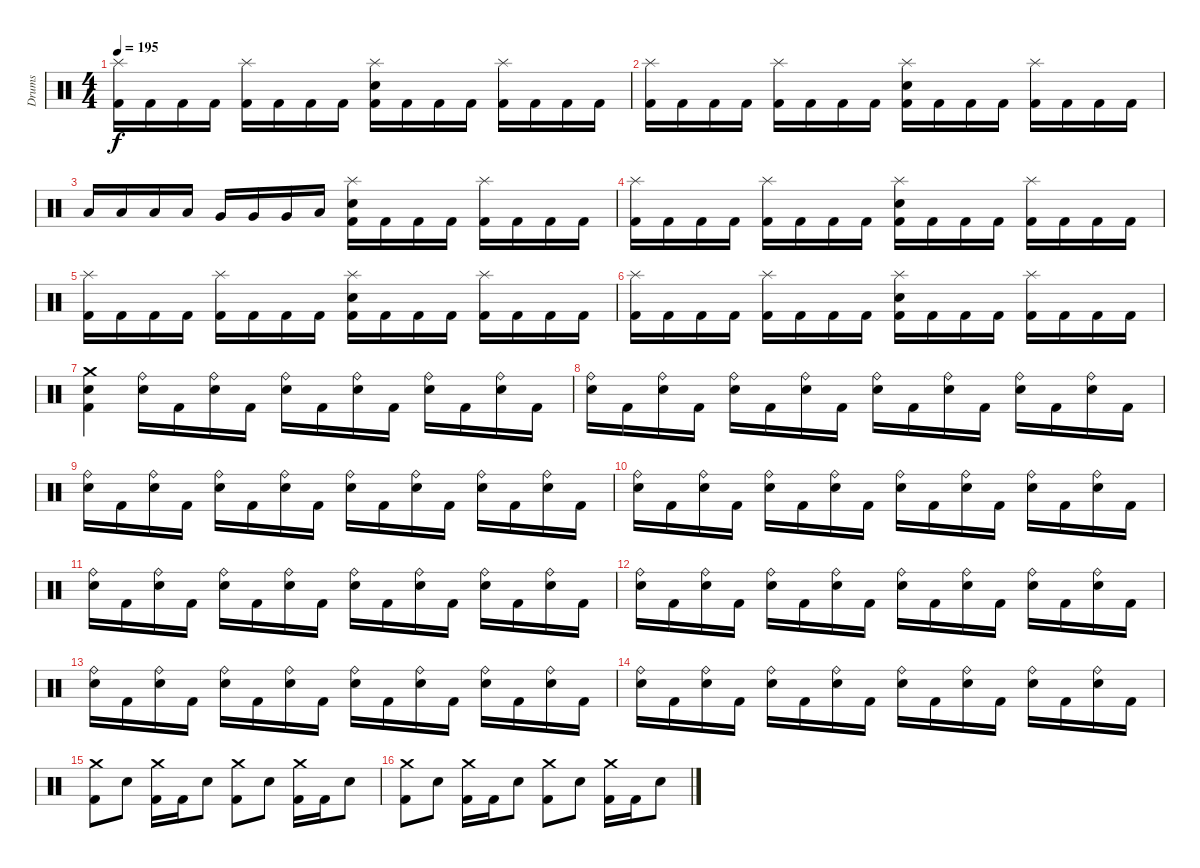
\track ("Drums" "Drums") {instrument percussion}
\staff {score}
\articulation defaults
\ts (4 4)
\tempo 195
\clef neutral
\ks c
("Splash (hit)" "Kick (hit) 2").16{dy f} "Kick (hit) 2".16 "Kick (hit) 2".16 "Kick (hit) 2".16 ("Splash (hit)" "Kick (hit) 2").16 "Kick (hit) 2".16 "Kick (hit) 2".16 "Kick (hit) 2".16 ("Splash (hit)" "Electric Snare (hit)" "Kick (hit) 2").16 "Kick (hit) 2".16 "Kick (hit) 2".16 "Kick (hit) 2".16 ("Splash (hit)" "Kick (hit) 2").16 "Kick (hit) 2".16 "Kick (hit) 2".16 "Kick (hit) 2".16 |
("Splash (hit)" "Kick (hit) 2").16 "Kick (hit) 2".16 "Kick (hit) 2".16 "Kick (hit) 2".16 ("Splash (hit)" "Kick (hit) 2").16 "Kick (hit) 2".16 "Kick (hit) 2".16 "Kick (hit) 2".16 ("Splash (hit)" "Electric Snare (hit)" "Kick (hit) 2").16 "Kick (hit) 2".16 "Kick (hit) 2".16 "Kick (hit) 2".16 ("Splash (hit)" "Kick (hit) 2").16 "Kick (hit) 2".16 "Kick (hit) 2".16 "Kick (hit) 2".16 |
"Low Floor Tom (hit)".16 "Low Tom (hit)".16 "Low Tom (hit)".16 "Low Floor Tom (hit)".16 "Very Low Tom (hit)".16 "Very Low Tom (hit)".16 "Very Low Tom (hit)".16 "Low Floor Tom (hit)".16 ("Splash (hit)" "Electric Snare (hit)" "Kick (hit) 2").16 "Kick (hit) 2".16 "Kick (hit) 2".16 "Kick (hit) 2".16 ("Splash (hit)" "Kick (hit) 2").16 "Kick (hit) 2".16 "Kick (hit) 2".16 "Kick (hit) 2".16 |
("Splash (hit)" "Kick (hit) 2").16 "Kick (hit) 2".16 "Kick (hit) 2".16 "Kick (hit) 2".16 ("Splash (hit)" "Kick (hit) 2").16 "Kick (hit) 2".16 "Kick (hit) 2".16 "Kick (hit) 2".16 ("Splash (hit)" "Electric Snare (hit)" "Kick (hit) 2").16 "Kick (hit) 2".16 "Kick (hit) 2".16 "Kick (hit) 2".16 ("Splash (hit)" "Kick (hit) 2").16 "Kick (hit) 2".16 "Kick (hit) 2".16 "Kick (hit) 2".16 |
("Splash (hit)" "Kick (hit) 2").16 "Kick (hit) 2".16 "Kick (hit) 2".16 "Kick (hit) 2".16 ("Splash (hit)" "Kick (hit) 2").16 "Kick (hit) 2".16 "Kick (hit) 2".16 "Kick (hit) 2".16 ("Splash (hit)" "Electric Snare (hit)" "Kick (hit) 2").16 "Kick (hit) 2".16 "Kick (hit) 2".16 "Kick (hit) 2".16 ("Splash (hit)" "Kick (hit) 2").16 "Kick (hit) 2".16 "Kick (hit) 2".16 "Kick (hit) 2".16 |
("Splash (hit)" "Kick (hit) 2").16 "Kick (hit) 2".16 "Kick (hit) 2".16 "Kick (hit) 2".16 ("Splash (hit)" "Kick (hit) 2").16 "Kick (hit) 2".16 "Kick (hit) 2".16 "Kick (hit) 2".16 ("Splash (hit)" "Electric Snare (hit)" "Kick (hit) 2").16 "Kick (hit) 2".16 "Kick (hit) 2".16 "Kick (hit) 2".16 ("Splash (hit)" "Kick (hit) 2").16 "Kick (hit) 2".16 "Kick (hit) 2".16 "Kick (hit) 2".16 |
("Crash medium (hit)" "Electric Snare (hit)" "Kick (hit) 2").4 ("Ride (bell)" "Electric Snare (hit)").16 "Kick (hit) 2".16 ("Ride (bell)" "Electric Snare (hit)").16 "Kick (hit) 2".16 ("Ride (bell)" "Electric Snare (hit)").16 "Kick (hit) 2".16 ("Ride (bell)" "Electric Snare (hit)").16 "Kick (hit) 2".16 ("Ride (bell)" "Electric Snare (hit)").16 "Kick (hit) 2".16 ("Ride (bell)" "Electric Snare (hit)").16 "Kick (hit) 2".16 |
("Ride (bell)" "Electric Snare (hit)").16 "Kick (hit) 2".16 ("Ride (bell)" "Electric Snare (hit)").16 "Kick (hit) 2".16 ("Ride (bell)" "Electric Snare (hit)").16 "Kick (hit) 2".16 ("Ride (bell)" "Electric Snare (hit)").16 "Kick (hit) 2".16 ("Ride (bell)" "Electric Snare (hit)").16 "Kick (hit) 2".16 ("Ride (bell)" "Electric Snare (hit)").16 "Kick (hit) 2".16 ("Ride (bell)" "Electric Snare (hit)").16 "Kick (hit) 2".16 ("Ride (bell)" "Electric Snare (hit)").16 "Kick (hit) 2".16 |
("Ride (bell)" "Electric Snare (hit)").16 "Kick (hit) 2".16 ("Ride (bell)" "Electric Snare (hit)").16 "Kick (hit) 2".16 ("Ride (bell)" "Electric Snare (hit)").16 "Kick (hit) 2".16 ("Ride (bell)" "Electric Snare (hit)").16 "Kick (hit) 2".16 ("Ride (bell)" "Electric Snare (hit)").16 "Kick (hit) 2".16 ("Ride (bell)" "Electric Snare (hit)").16 "Kick (hit) 2".16 ("Ride (bell)" "Electric Snare (hit)").16 "Kick (hit) 2".16 ("Ride (bell)" "Electric Snare (hit)").16 "Kick (hit) 2".16 |
("Ride (bell)" "Electric Snare (hit)").16 "Kick (hit) 2".16 ("Ride (bell)" "Electric Snare (hit)").16 "Kick (hit) 2".16 ("Ride (bell)" "Electric Snare (hit)").16 "Kick (hit) 2".16 ("Ride (bell)" "Electric Snare (hit)").16 "Kick (hit) 2".16 ("Ride (bell)" "Electric Snare (hit)").16 "Kick (hit) 2".16 ("Ride (bell)" "Electric Snare (hit)").16 "Kick (hit) 2".16 ("Ride (bell)" "Electric Snare (hit)").16 "Kick (hit) 2".16 ("Ride (bell)" "Electric Snare (hit)").16 "Kick (hit) 2".16 |
("Ride (bell)" "Electric Snare (hit)").16 "Kick (hit) 2".16 ("Ride (bell)" "Electric Snare (hit)").16 "Kick (hit) 2".16 ("Ride (bell)" "Electric Snare (hit)").16 "Kick (hit) 2".16 ("Ride (bell)" "Electric Snare (hit)").16 "Kick (hit) 2".16 ("Ride (bell)" "Electric Snare (hit)").16 "Kick (hit) 2".16 ("Ride (bell)" "Electric Snare (hit)").16 "Kick (hit) 2".16 ("Ride (bell)" "Electric Snare (hit)").16 "Kick (hit) 2".16 ("Ride (bell)" "Electric Snare (hit)").16 "Kick (hit) 2".16 |
("Ride (bell)" "Electric Snare (hit)").16 "Kick (hit) 2".16 ("Ride (bell)" "Electric Snare (hit)").16 "Kick (hit) 2".16 ("Ride (bell)" "Electric Snare (hit)").16 "Kick (hit) 2".16 ("Ride (bell)" "Electric Snare (hit)").16 "Kick (hit) 2".16 ("Ride (bell)" "Electric Snare (hit)").16 "Kick (hit) 2".16 ("Ride (bell)" "Electric Snare (hit)").16 "Kick (hit) 2".16 ("Ride (bell)" "Electric Snare (hit)").16 "Kick (hit) 2".16 ("Ride (bell)" "Electric Snare (hit)").16 "Kick (hit) 2".16 |
("Ride (bell)" "Electric Snare (hit)").16 "Kick (hit) 2".16 ("Ride (bell)" "Electric Snare (hit)").16 "Kick (hit) 2".16 ("Ride (bell)" "Electric Snare (hit)").16 "Kick (hit) 2".16 ("Ride (bell)" "Electric Snare (hit)").16 "Kick (hit) 2".16 ("Ride (bell)" "Electric Snare (hit)").16 "Kick (hit) 2".16 ("Ride (bell)" "Electric Snare (hit)").16 "Kick (hit) 2".16 ("Ride (bell)" "Electric Snare (hit)").16 "Kick (hit) 2".16 ("Ride (bell)" "Electric Snare (hit)").16 "Kick (hit) 2".16 |
("Ride (bell)" "Electric Snare (hit)").16 "Kick (hit) 2".16 ("Ride (bell)" "Electric Snare (hit)").16 "Kick (hit) 2".16 ("Ride (bell)" "Electric Snare (hit)").16 "Kick (hit) 2".16 ("Ride (bell)" "Electric Snare (hit)").16 "Kick (hit) 2".16 ("Ride (bell)" "Electric Snare (hit)").16 "Kick (hit) 2".16 ("Ride (bell)" "Electric Snare (hit)").16 "Kick (hit) 2".16 ("Ride (bell)" "Electric Snare (hit)").16 "Kick (hit) 2".16 ("Ride (bell)" "Electric Snare (hit)").16 "Kick (hit) 2".16 |
("Crash medium (hit)" "Kick (hit) 2").8 "Electric Snare (hit)".8 ("Crash medium (hit)" "Kick (hit) 2").16 "Kick (hit) 2".16 "Electric Snare (hit)".8 ("Crash medium (hit)" "Kick (hit) 2").8 "Electric Snare (hit)".8 ("Crash medium (hit)" "Kick (hit) 2").16 "Kick (hit) 2".16 "Electric Snare (hit)".8 |
("Crash medium (hit)" "Kick (hit) 2").8 "Electric Snare (hit)".8 ("Crash medium (hit)" "Kick (hit) 2").16 "Kick (hit) 2".16 "Electric Snare (hit)".8 ("Crash medium (hit)" "Kick (hit) 2").8 "Electric Snare (hit)".8 ("Crash medium (hit)" "Kick (hit) 2").16 "Kick (hit) 2".16 "Electric Snare (hit)".8
